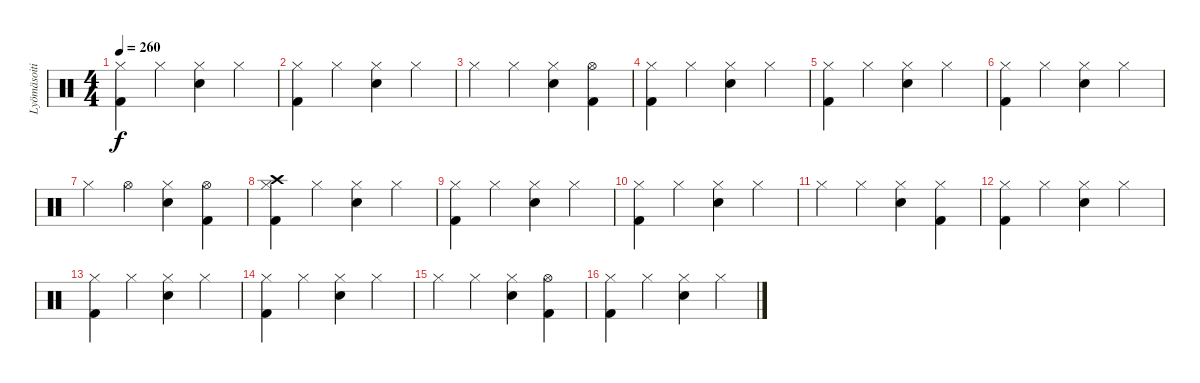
\track ("Lyömäsoitin" "Lyömäsoiti") {instrument percussion}
\staff {score}
\articulation defaults
\ts (4 4)
\tempo 260
\clef neutral
\ks c
("Hi-Hat (closed)" "Kick (hit) 2").4{dy f} "Hi-Hat (closed)".4 ("Hi-Hat (closed)" "Electric Snare (hit)").4 "Hi-Hat (closed)".4 |
("Hi-Hat (closed)" "Kick (hit) 2").4 "Hi-Hat (closed)".4 ("Hi-Hat (closed)" "Electric Snare (hit)").4 "Hi-Hat (closed)".4 |
"Hi-Hat (closed)".4 "Hi-Hat (closed)".4 ("Hi-Hat (closed)" "Electric Snare (hit)").4 ("Hi-Hat (open)" "Kick (hit) 2").4 |
("Hi-Hat (closed)" "Kick (hit) 2").4 "Hi-Hat (closed)".4 ("Hi-Hat (closed)" "Electric Snare (hit)").4 "Hi-Hat (closed)".4 |
("Hi-Hat (closed)" "Kick (hit) 2").4 "Hi-Hat (closed)".4 ("Hi-Hat (closed)" "Electric Snare (hit)").4 "Hi-Hat (closed)".4 |
("Hi-Hat (closed)" "Kick (hit) 2").4 "Hi-Hat (closed)".4 ("Hi-Hat (closed)" "Electric Snare (hit)").4 "Hi-Hat (closed)".4 |
"Hi-Hat (closed)".4 "Hi-Hat (open)".4 ("Hi-Hat (closed)" "Electric Snare (hit)").4 ("Hi-Hat (open)" "Kick (hit) 2").4 |
("Crash high (hit)" "Hi-Hat (closed)" "Kick (hit) 2").4 "Hi-Hat (closed)".4 ("Hi-Hat (closed)" "Electric Snare (hit)").4 "Hi-Hat (closed)".4 |
("Hi-Hat (closed)" "Kick (hit) 2").4 "Hi-Hat (closed)".4 ("Hi-Hat (closed)" "Electric Snare (hit)").4 "Hi-Hat (closed)".4 |
("Hi-Hat (closed)" "Kick (hit) 2").4 "Hi-Hat (closed)".4 ("Hi-Hat (closed)" "Electric Snare (hit)").4 "Hi-Hat (closed)".4 |
"Hi-Hat (closed)".4 "Hi-Hat (closed)".4 ("Hi-Hat (closed)" "Electric Snare (hit)").4 ("Hi-Hat (closed)" "Kick (hit) 2").4 |
("Hi-Hat (closed)" "Kick (hit) 2").4 "Hi-Hat (closed)".4 ("Hi-Hat (closed)" "Electric Snare (hit)").4 "Hi-Hat (closed)".4 |
("Hi-Hat (closed)" "Kick (hit) 2").4 "Hi-Hat (closed)".4 ("Hi-Hat (closed)" "Electric Snare (hit)").4 "Hi-Hat (closed)".4 |
("Hi-Hat (closed)" "Kick (hit) 2").4 "Hi-Hat (closed)".4 ("Hi-Hat (closed)" "Electric Snare (hit)").4 "Hi-Hat (closed)".4 |
"Hi-Hat (closed)".4 "Hi-Hat (closed)".4 ("Hi-Hat (closed)" "Electric Snare (hit)").4 ("Hi-Hat (open)" "Kick (hit) 2").4 |
("Hi-Hat (closed)" "Kick (hit) 2").4 "Hi-Hat (closed)".4 ("Hi-Hat (closed)" "Electric Snare (hit)").4 "Hi-Hat (closed)".4
